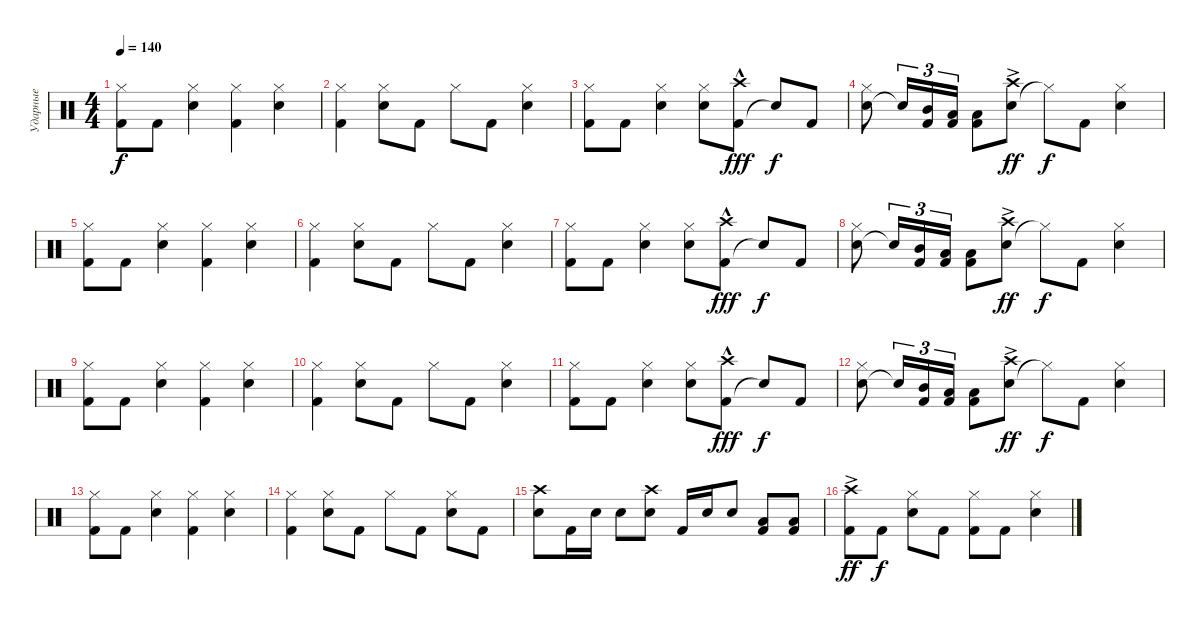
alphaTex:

\track ("Ударные" "Ударные") {instrument percussion}
\staff {score}
\articulation defaults
\ts (4 4)
\tempo 140
\clef neutral
\ks c
("Kick (hit) 2" "Hi-Hat (closed)").8{dy f} "Kick (hit) 2".8 ("Snare (hit) 2" "Hi-Hat (closed)").4 ("Kick (hit) 2" "Hi-Hat (closed)").4 ("Snare (hit) 2" "Hi-Hat (closed)").4 |
("Kick (hit) 2" "Hi-Hat (closed)").4 ("Snare (hit) 2" "Hi-Hat (closed)").8 "Kick (hit) 2".8 "Hi-Hat (closed)".8 "Kick (hit) 2".8 ("Snare (hit) 2" "Hi-Hat (closed)").4 |
("Kick (hit) 2" "Hi-Hat (closed)").8 "Kick (hit) 2".8 ("Snare (hit) 2" "Hi-Hat (closed)").4 ("Snare (hit) 2" "Hi-Hat (closed)").8 ("Kick (hit) 2" "Crash high (hit)"{hac}).8{dy fff} "Snare (hit)"{t}.8{dy f} "Kick (hit) 2".8 |
("Snare (hit) 2" "Hi-Hat (closed)").8 "Snare (hit)"{t}.16{tu (3 2)} ("Kick (hit) 2" "Mid Tom (hit)").16{tu (3 2)} ("Kick (hit) 2" "Low Tom (hit)").16{tu (3 2)} ("Kick (hit) 2" "Low Tom (hit)").8 ("Snare (hit) 2" "Crash high (hit)"{ac}).8{dy ff} "Hi-Hat (closed)"{t}.8{dy f} "Kick (hit) 2".8 ("Snare (hit) 2" "Hi-Hat (closed)").4 |
("Kick (hit) 2" "Hi-Hat (closed)").8 "Kick (hit) 2".8 ("Snare (hit) 2" "Hi-Hat (closed)").4 ("Kick (hit) 2" "Hi-Hat (closed)").4 ("Snare (hit) 2" "Hi-Hat (closed)").4 |
("Kick (hit) 2" "Hi-Hat (closed)").4 ("Snare (hit) 2" "Hi-Hat (closed)").8 "Kick (hit) 2".8 "Hi-Hat (closed)".8 "Kick (hit) 2".8 ("Snare (hit) 2" "Hi-Hat (closed)").4 |
("Kick (hit) 2" "Hi-Hat (closed)").8 "Kick (hit) 2".8 ("Snare (hit) 2" "Hi-Hat (closed)").4 ("Snare (hit) 2" "Hi-Hat (closed)").8 ("Kick (hit) 2" "Crash high (hit)"{hac}).8{dy fff} "Snare (hit)"{t}.8{dy f} "Kick (hit) 2".8 |
("Snare (hit) 2" "Hi-Hat (closed)").8 "Snare (hit)"{t}.16{tu (3 2)} ("Kick (hit) 2" "Mid Tom (hit)").16{tu (3 2)} ("Kick (hit) 2" "Low Tom (hit)").16{tu (3 2)} ("Kick (hit) 2" "Low Tom (hit)").8 ("Snare (hit) 2" "Crash high (hit)"{ac}).8{dy ff} "Hi-Hat (closed)"{t}.8{dy f} "Kick (hit) 2".8 ("Snare (hit) 2" "Hi-Hat (closed)").4 |
("Kick (hit) 2" "Hi-Hat (closed)").8 "Kick (hit) 2".8 ("Snare (hit) 2" "Hi-Hat (closed)").4 ("Kick (hit) 2" "Hi-Hat (closed)").4 ("Snare (hit) 2" "Hi-Hat (closed)").4 |
("Kick (hit) 2" "Hi-Hat (closed)").4 ("Snare (hit) 2" "Hi-Hat (closed)").8 "Kick (hit) 2".8 "Hi-Hat (closed)".8 "Kick (hit) 2".8 ("Snare (hit) 2" "Hi-Hat (closed)").4 |
("Kick (hit) 2" "Hi-Hat (closed)").8 "Kick (hit) 2".8 ("Snare (hit) 2" "Hi-Hat (closed)").4 ("Snare (hit) 2" "Hi-Hat (closed)").8 ("Kick (hit) 2" "Crash high (hit)"{hac}).8{dy fff} "Snare (hit)"{t}.8{dy f} "Kick (hit) 2".8 |
("Snare (hit) 2" "Hi-Hat (closed)").8 "Snare (hit)"{t}.16{tu (3 2)} ("Kick (hit) 2" "Mid Tom (hit)").16{tu (3 2)} ("Kick (hit) 2" "Low Tom (hit)").16{tu (3 2)} ("Kick (hit) 2" "Low Tom (hit)").8 ("Snare (hit) 2" "Crash high (hit)"{ac}).8{dy ff} "Hi-Hat (closed)"{t}.8{dy f} "Kick (hit) 2".8 ("Snare (hit) 2" "Hi-Hat (closed)").4 |
("Kick (hit) 2" "Hi-Hat (closed)").8 "Kick (hit) 2".8 ("Snare (hit) 2" "Hi-Hat (closed)").4 ("Kick (hit) 2" "Hi-Hat (closed)").4 ("Snare (hit) 2" "Hi-Hat (closed)").4 |
("Kick (hit) 2" "Hi-Hat (closed)").4 ("Snare (hit) 2" "Hi-Hat (closed)").8 "Kick (hit) 2".8 "Hi-Hat (closed)".8 "Kick (hit) 2".8 ("Snare (hit) 2" "Hi-Hat (closed)").8 "Kick (hit) 2".8 |
("Snare (hit) 2" "Crash high (hit)").8 "Kick (hit) 2".16 "Snare (hit) 2".16 "Snare (hit) 2".8 ("Snare (hit) 2" "Crash high (hit)").8 "Kick (hit) 2".16 "Snare (hit) 2".16 "Snare (hit) 2".8 ("Kick (hit) 2" "Low Tom (hit)").8 ("Kick (hit) 2" "Low Tom (hit)").8 |
("Kick (hit) 2" "Crash high (hit)"{ac}).8{dy ff} "Kick (hit) 2".8{dy f} ("Snare (hit) 2" "Hi-Hat (closed)").8 "Kick (hit) 2".8 ("Kick (hit) 2" "Hi-Hat (closed)").8 "Kick (hit) 2".8 ("Snare (hit) 2" "Hi-Hat (closed)").4
